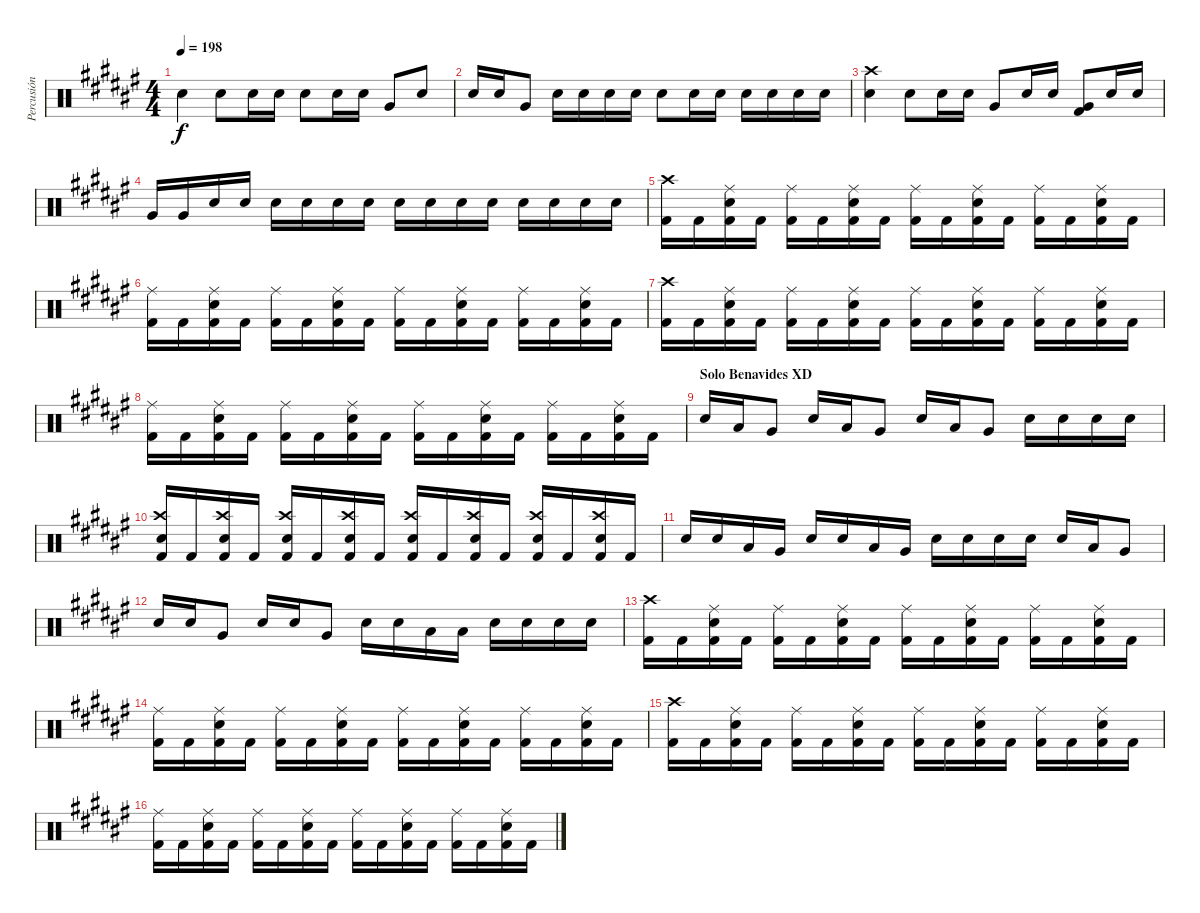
\track ("Percusión" "Percusión") {instrument percussion}
\staff {score}
\articulation defaults
\ts (4 4)
\tempo 198
\clef neutral
\ks d#minor "Snare (hit) 2".4{dy f} "Snare (hit) 2".8 "Snare (hit) 2".16 "Snare (hit) 2".16 "Snare (hit) 2".8 "Snare (hit) 2".16 "Snare (hit) 2".16 "Very Low Tom (hit)".8 "Snare (hit) 2".8
|
"Snare (hit) 2".16 "Snare (hit) 2".16 "Very Low Tom (hit)".8 "Snare (hit) 2".16 "Snare (hit) 2".16 "Snare (hit) 2".16 "Snare (hit) 2".16 "Snare (hit) 2".8 "Snare (hit) 2".16 "Snare (hit) 2".16 "Snare (hit) 2".16 "Snare (hit) 2".16 "Snare (hit) 2".16 "Snare (hit) 2".16 |
("Crash high (hit)" "Snare (hit) 2").4 "Snare (hit) 2".8 "Snare (hit) 2".16 "Snare (hit) 2".16 "Very Low Tom (hit)".8 "Snare (hit) 2".16 "Snare (hit) 2".16 ("Very Low Tom (hit)" "Kick (hit) 2").8 "Snare (hit) 2".16 "Snare (hit) 2".16 |
"Very Low Tom (hit)".16 "Very Low Tom (hit)".16 "Snare (hit) 2".16 "Snare (hit) 2".16 "Snare (hit) 2".16 "Snare (hit) 2".16 "Snare (hit) 2".16 "Snare (hit) 2".16 "Snare (hit) 2".16 "Snare (hit) 2".16 "Snare (hit) 2".16 "Snare (hit) 2".16 "Snare (hit) 2".16 "Snare (hit) 2".16 "Snare (hit) 2".16 "Snare (hit) 2".16 |
("Crash high (hit)" "Kick (hit) 2").16 "Kick (hit) 2".16 ("Ride (middle)" "Snare (hit) 2" "Kick (hit) 2").16 "Kick (hit) 2".16 ("Ride (middle)" "Kick (hit) 2").16 "Kick (hit) 2".16 ("Ride (middle)" "Snare (hit) 2" "Kick (hit) 2").16 "Kick (hit) 2".16 ("Ride (middle)" "Kick (hit) 2").16 "Kick (hit) 2".16 ("Ride (middle)" "Snare (hit) 2" "Kick (hit) 2").16 "Kick (hit) 2".16 ("Ride (middle)" "Kick (hit) 2").16 "Kick (hit) 2".16 ("Ride (middle)" "Snare (hit) 2" "Kick (hit) 2").16 "Kick (hit) 2".16 |
("Ride (middle)" "Kick (hit) 2").16 "Kick (hit) 2".16 ("Ride (middle)" "Snare (hit) 2" "Kick (hit) 2").16 "Kick (hit) 2".16 ("Ride (middle)" "Kick (hit) 2").16 "Kick (hit) 2".16 ("Ride (middle)" "Snare (hit) 2" "Kick (hit) 2").16 "Kick (hit) 2".16 ("Ride (middle)" "Kick (hit) 2").16 "Kick (hit) 2".16 ("Ride (middle)" "Snare (hit) 2" "Kick (hit) 2").16 "Kick (hit) 2".16 ("Ride (middle)" "Kick (hit) 2").16 "Kick (hit) 2".16 ("Ride (middle)" "Snare (hit) 2" "Kick (hit) 2").16 "Kick (hit) 2".16 |
("Crash high (hit)" "Kick (hit) 2").16 "Kick (hit) 2".16 ("Ride (middle)" "Snare (hit) 2" "Kick (hit) 2").16 "Kick (hit) 2".16 ("Ride (middle)" "Kick (hit) 2").16 "Kick (hit) 2".16 ("Ride (middle)" "Snare (hit) 2" "Kick (hit) 2").16 "Kick (hit) 2".16 ("Ride (middle)" "Kick (hit) 2").16 "Kick (hit) 2".16 ("Ride (middle)" "Snare (hit) 2" "Kick (hit) 2").16 "Kick (hit) 2".16 ("Ride (middle)" "Kick (hit) 2").16 "Kick (hit) 2".16 ("Ride (middle)" "Snare (hit) 2" "Kick (hit) 2").16 "Kick (hit) 2".16 |
("Ride (middle)" "Kick (hit) 2").16 "Kick (hit) 2".16 ("Ride (middle)" "Snare (hit) 2" "Kick (hit) 2").16 "Kick (hit) 2".16 ("Ride (middle)" "Kick (hit) 2").16 "Kick (hit) 2".16 ("Ride (middle)" "Snare (hit) 2" "Kick (hit) 2").16 "Kick (hit) 2".16 ("Ride (middle)" "Kick (hit) 2").16 "Kick (hit) 2".16 ("Ride (middle)" "Snare (hit) 2" "Kick (hit) 2").16 "Kick (hit) 2".16 ("Ride (middle)" "Kick (hit) 2").16 "Kick (hit) 2".16 ("Ride (middle)" "Snare (hit) 2" "Kick (hit) 2").16 "Kick (hit) 2".16 |
\section ("" "Solo Benavides XD")
"Snare (hit) 2".16 "Low Tom (hit)".16 "Very Low Tom (hit)".8 "Snare (hit) 2".16 "Low Tom (hit)".16 "Very Low Tom (hit)".8 "Snare (hit) 2".16 "Low Tom (hit)".16 "Very Low Tom (hit)".8 "Snare (hit) 2".16 "Snare (hit) 2".16 "Snare (hit) 2".16 "Snare (hit) 2".16 |
("Crash high (hit)" "Snare (hit) 2" "Kick (hit) 2").16 "Kick (hit) 2".16 ("Crash high (hit)" "Snare (hit) 2" "Kick (hit) 2").16 "Kick (hit) 2".16 ("Crash high (hit)" "Snare (hit) 2" "Kick (hit) 2").16 "Kick (hit) 2".16 ("Crash high (hit)" "Snare (hit) 2" "Kick (hit) 2").16 "Kick (hit) 2".16 ("Crash high (hit)" "Snare (hit) 2" "Kick (hit) 2").16 "Kick (hit) 2".16 ("Crash high (hit)" "Snare (hit) 2" "Kick (hit) 2").16 "Kick (hit) 2".16 ("Crash high (hit)" "Snare (hit) 2" "Kick (hit) 2").16 "Kick (hit) 2".16 ("Crash high (hit)" "Snare (hit) 2" "Kick (hit) 2").16 "Kick (hit) 2".16 |
"Snare (hit) 2".16 "Snare (hit) 2".16 "Low Tom (hit)".16 "Very Low Tom (hit)".16 "Snare (hit) 2".16 "Snare (hit) 2".16 "Low Tom (hit)".16 "Very Low Tom (hit)".16 "Snare (hit) 2".16 "Snare (hit) 2".16 "Snare (hit) 2".16 "Snare (hit) 2".16 "Snare (hit) 2".16 "Low Tom (hit)".16 "Very Low Tom (hit)".8 |
"Snare (hit) 2".16 "Snare (hit) 2".16 "Very Low Tom (hit)".8 "Snare (hit) 2".16 "Snare (hit) 2".16 "Very Low Tom (hit)".8 "Snare (hit) 2".16 "Snare (hit) 2".16 "Low Tom (hit)".16 "Low Tom (hit)".16 "Snare (hit) 2".16 "Snare (hit) 2".16 "Snare (hit) 2".16 "Snare (hit) 2".16 |
("Crash high (hit)" "Kick (hit) 2").16 "Kick (hit) 2".16 ("Ride (middle)" "Snare (hit) 2" "Kick (hit) 2").16 "Kick (hit) 2".16 ("Ride (middle)" "Kick (hit) 2").16 "Kick (hit) 2".16 ("Ride (middle)" "Snare (hit) 2" "Kick (hit) 2").16 "Kick (hit) 2".16 ("Ride (middle)" "Kick (hit) 2").16 "Kick (hit) 2".16 ("Ride (middle)" "Snare (hit) 2" "Kick (hit) 2").16 "Kick (hit) 2".16 ("Ride (middle)" "Kick (hit) 2").16 "Kick (hit) 2".16 ("Ride (middle)" "Snare (hit) 2" "Kick (hit) 2").16 "Kick (hit) 2".16 |
("Ride (middle)" "Kick (hit) 2").16 "Kick (hit) 2".16 ("Ride (middle)" "Snare (hit) 2" "Kick (hit) 2").16 "Kick (hit) 2".16 ("Ride (middle)" "Kick (hit) 2").16 "Kick (hit) 2".16 ("Ride (middle)" "Snare (hit) 2" "Kick (hit) 2").16 "Kick (hit) 2".16 ("Ride (middle)" "Kick (hit) 2").16 "Kick (hit) 2".16 ("Ride (middle)" "Snare (hit) 2" "Kick (hit) 2").16 "Kick (hit) 2".16 ("Ride (middle)" "Kick (hit) 2").16 "Kick (hit) 2".16 ("Ride (middle)" "Snare (hit) 2" "Kick (hit) 2").16 "Kick (hit) 2".16 |
("Crash high (hit)" "Kick (hit) 2").16 "Kick (hit) 2".16 ("Ride (middle)" "Snare (hit) 2" "Kick (hit) 2").16 "Kick (hit) 2".16 ("Ride (middle)" "Kick (hit) 2").16 "Kick (hit) 2".16 ("Ride (middle)" "Snare (hit) 2" "Kick (hit) 2").16 "Kick (hit) 2".16 ("Ride (middle)" "Kick (hit) 2").16 "Kick (hit) 2".16 ("Ride (middle)" "Snare (hit) 2" "Kick (hit) 2").16 "Kick (hit) 2".16 ("Ride (middle)" "Kick (hit) 2").16 "Kick (hit) 2".16 ("Ride (middle)" "Snare (hit) 2" "Kick (hit) 2").16 "Kick (hit) 2".16 |
("Ride (middle)" "Kick (hit) 2").16 "Kick (hit) 2".16 ("Ride (middle)" "Snare (hit) 2" "Kick (hit) 2").16 "Kick (hit) 2".16 ("Ride (middle)" "Kick (hit) 2").16 "Kick (hit) 2".16 ("Ride (middle)" "Snare (hit) 2" "Kick (hit) 2").16 "Kick (hit) 2".16 ("Ride (middle)" "Kick (hit) 2").16 "Kick (hit) 2".16 ("Ride (middle)" "Snare (hit) 2" "Kick (hit) 2").16 "Kick (hit) 2".16 ("Ride (middle)" "Kick (hit) 2").16 "Kick (hit) 2".16 ("Ride (middle)" "Snare (hit) 2" "Kick (hit) 2").16 "Kick (hit) 2".16
